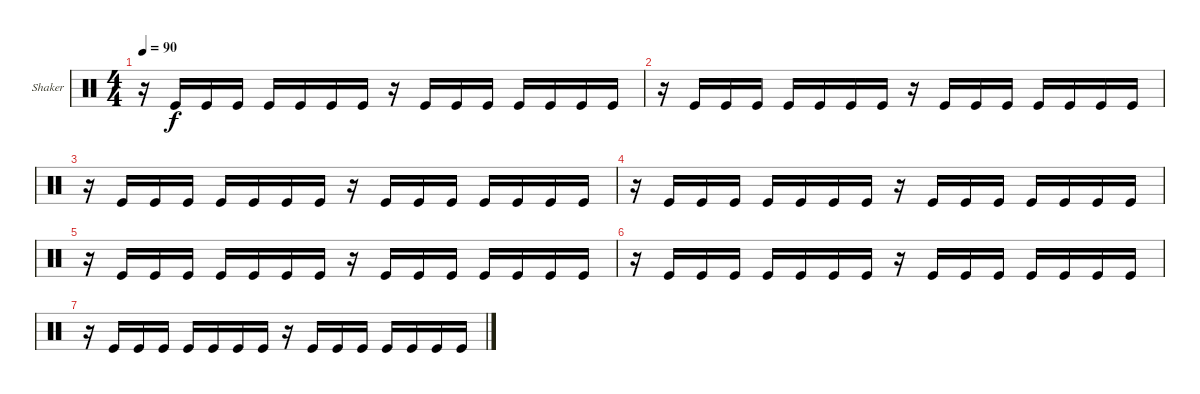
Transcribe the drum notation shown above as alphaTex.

\bracketExtendMode groupsimilarinstruments
\firstSystemTrackNameOrientation horizontal
\otherSystemsTrackNameOrientation horizontal
\track ("Shaker" "Shaker") {multiBarRest instrument percussion}
\staff {score}
\articulation defaults
\ts (4 4)
\tempo 90
\clef neutral
\ks c
r.16{dy f} "Kick (hit)".16 "Kick (hit)".16 "Kick (hit)".16 "Kick (hit)".16 "Kick (hit)".16 "Kick (hit)".16 "Kick (hit)".16 r.16 "Kick (hit)".16 "Kick (hit)".16 "Kick (hit)".16 "Kick (hit)".16 "Kick (hit)".16 "Kick (hit)".16 "Kick (hit)".16 |
r.16 "Kick (hit)".16 "Kick (hit)".16 "Kick (hit)".16 "Kick (hit)".16 "Kick (hit)".16 "Kick (hit)".16 "Kick (hit)".16 r.16 "Kick (hit)".16 "Kick (hit)".16 "Kick (hit)".16 "Kick (hit)".16 "Kick (hit)".16 "Kick (hit)".16 "Kick (hit)".16 |
r.16 "Kick (hit)".16 "Kick (hit)".16 "Kick (hit)".16 "Kick (hit)".16 "Kick (hit)".16 "Kick (hit)".16 "Kick (hit)".16 r.16 "Kick (hit)".16 "Kick (hit)".16 "Kick (hit)".16 "Kick (hit)".16 "Kick (hit)".16 "Kick (hit)".16 "Kick (hit)".16 |
r.16 "Kick (hit)".16 "Kick (hit)".16 "Kick (hit)".16 "Kick (hit)".16 "Kick (hit)".16 "Kick (hit)".16 "Kick (hit)".16 r.16 "Kick (hit)".16 "Kick (hit)".16 "Kick (hit)".16 "Kick (hit)".16 "Kick (hit)".16 "Kick (hit)".16 "Kick (hit)".16 |
r.16 "Kick (hit)".16 "Kick (hit)".16 "Kick (hit)".16 "Kick (hit)".16 "Kick (hit)".16 "Kick (hit)".16 "Kick (hit)".16 r.16 "Kick (hit)".16 "Kick (hit)".16 "Kick (hit)".16 "Kick (hit)".16 "Kick (hit)".16 "Kick (hit)".16 "Kick (hit)".16 |
r.16 "Kick (hit)".16 "Kick (hit)".16 "Kick (hit)".16 "Kick (hit)".16 "Kick (hit)".16 "Kick (hit)".16 "Kick (hit)".16 r.16 "Kick (hit)".16 "Kick (hit)".16 "Kick (hit)".16 "Kick (hit)".16 "Kick (hit)".16 "Kick (hit)".16 "Kick (hit)".16 |
r.16 "Kick (hit)".16 "Kick (hit)".16 "Kick (hit)".16 "Kick (hit)".16 "Kick (hit)".16 "Kick (hit)".16 "Kick (hit)".16 r.16 "Kick (hit)".16 "Kick (hit)".16 "Kick (hit)".16 "Kick (hit)".16 "Kick (hit)".16 "Kick (hit)".16 "Kick (hit)".16
